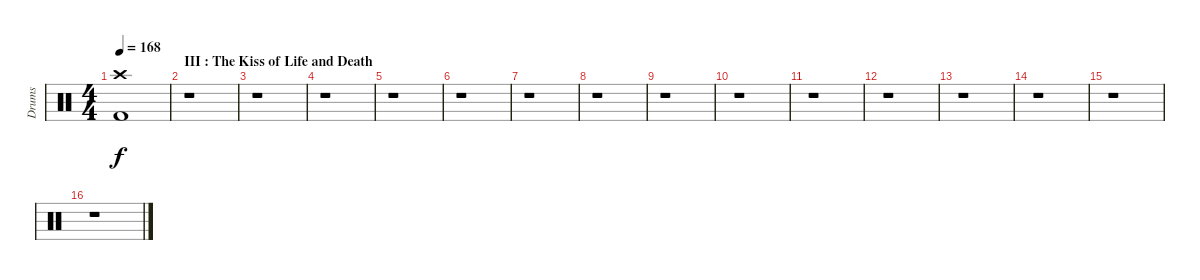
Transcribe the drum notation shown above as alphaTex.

\track ("Drums" "Drums") {instrument percussion}
\staff {score}
\articulation defaults
\ts (4 4)
\tempo 168
\clef neutral
\ks c
("Kick (hit) 2" "Crash high (hit)").1{dy f} |
\section ("" "III : The Kiss of Life and Death")
r.1 |
r.1 |
r.1 |
r.1 |
r.1 |
r.1 |
r.1 |
r.1 |
r.1 |
r.1 |
r.1 |
r.1 |
r.1 |
r.1 |
r.1
